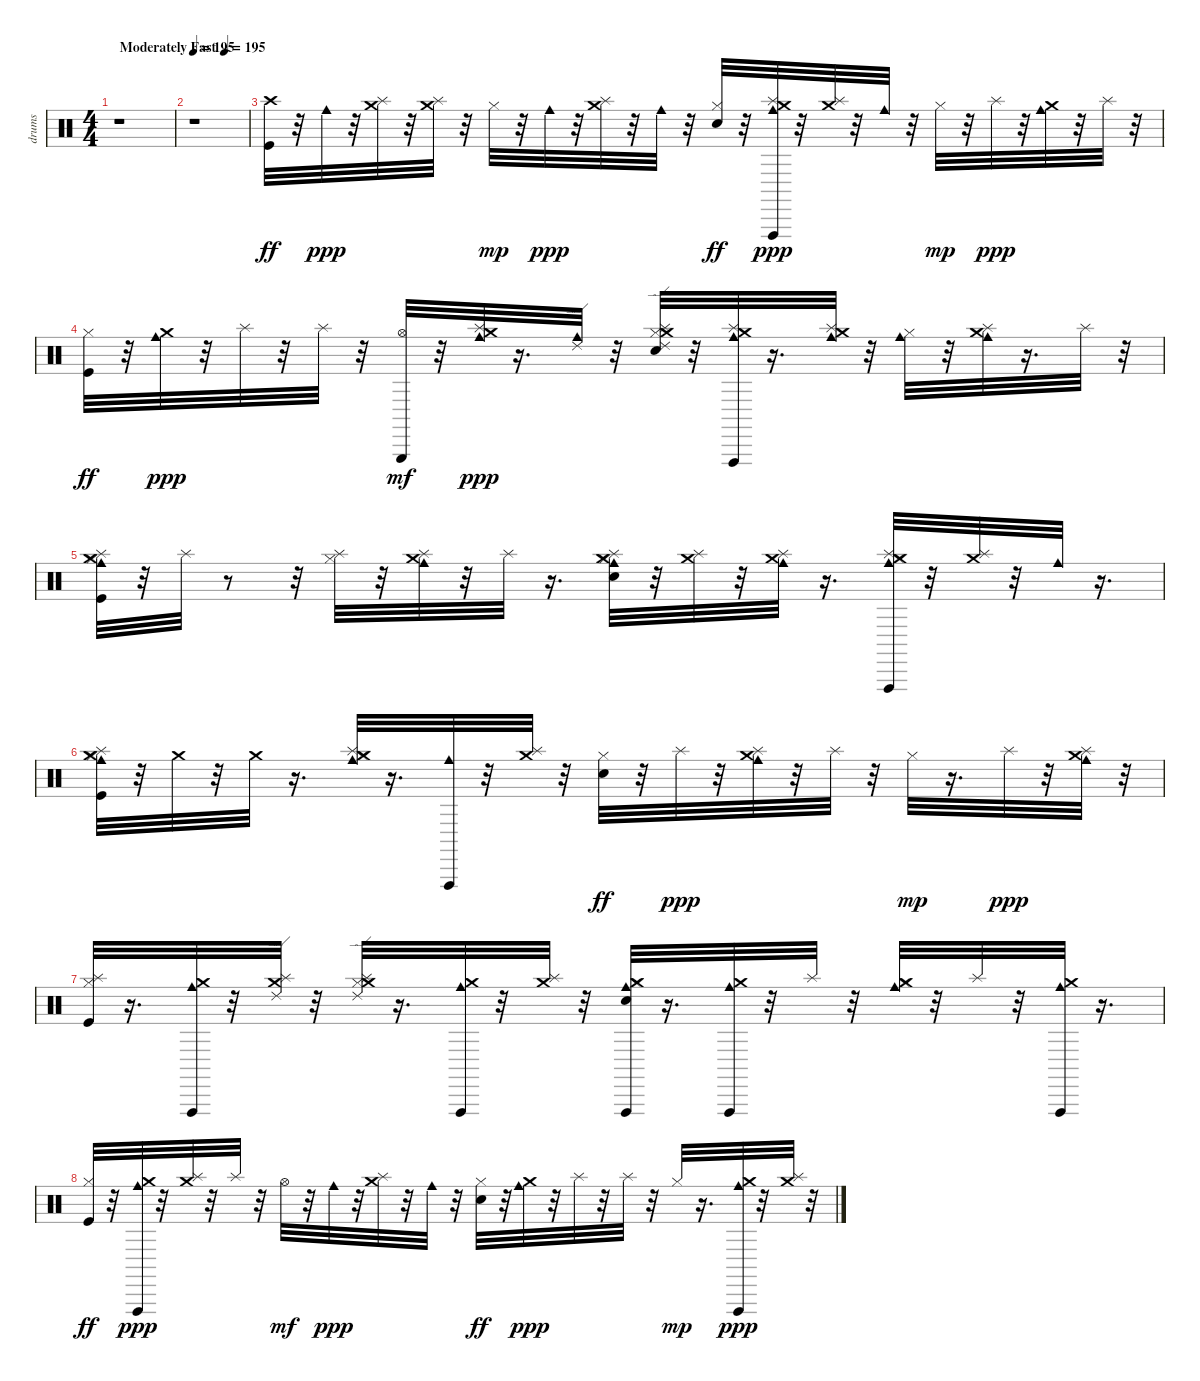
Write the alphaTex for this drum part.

\track ("drums" "drums") {instrument percussion}
\staff {score}
\articulation defaults
\ts (4 4)
\tempo (195 "Moderately Fast")
\clef neutral
\ks c
r.1{dy ff} |
\tempo 195
r.1 |
("Kick (hit)" "Crash high (hit)").32 r.32 "Cowbell medium (hit)".32{dy ppp} r.32 ("Splash (hit)" "Crash medium (hit)").32 r.32 ("Splash (hit)" "Crash medium (hit)").32 r.32 "Hi-Hat (closed)".32{dy mp} r.32 "Cowbell medium (hit)".32{dy ppp} r.32 ("Crash medium (hit)" "Splash (hit)").32 r.32 "Cowbell medium (hit)".32 r.32 ("Snare (hit) 2" "Hi-Hat (closed)").32{dy ff} r.32 ("Splash (hit)" "Crash medium (hit)" "Cowbell medium (hit)" "Vibraslap (hit)").32{dy ppp} r.32 ("Splash (hit)" "Crash medium (hit)").32 r.32 "Cowbell medium (hit)".32 r.32 "Hi-Hat (closed)".32{dy mp} r.32 "Splash (hit)".32{dy ppp} r.32 ("Cowbell medium (hit)" "Crash medium (hit)").32 r.32 "Splash (hit)".32 r.32 |
("Kick (hit)" "Hi-Hat (closed)").32{dy ff} r.32 ("Cowbell medium (hit)" "Crash medium (hit)").32{dy ppp} r.32 "Splash (hit)".32 r.32 "Splash (hit)".32 r.32 ("Hi-Hat (open)" "Triangle (hit)").32{dy mf} r.32 ("Cowbell medium (hit)" "Splash (hit)" "Crash medium (hit)").32{dy ppp} r.16{d} ("Cowbell medium (hit)" "Ride (edge) 2").32 r.32 ("Snare (hit) 2" "Hi-Hat (closed)" "Splash (hit)" "Crash medium (hit)" "Ride (edge) 2").32 r.32 ("Cowbell medium (hit)" "Vibraslap (hit)" "Crash medium (hit)" "Splash (hit)").32 r.16{d} ("Splash (hit)" "Cowbell medium (hit)" "Crash medium (hit)").32 r.32 ("Hi-Hat (closed)" "Cowbell medium (hit)").32 r.32 ("Cowbell medium (hit)" "Splash (hit)" "Crash medium (hit)").32 r.16{d} "Splash (hit)".32 r.32 |
("Hi-Hat (closed)" "Kick (hit)" "Splash (hit)" "Cowbell medium (hit)" "Crash medium (hit)").32 r.32 "Splash (hit)".32 r.8 r.32 ("Hi-Hat (closed)" "Splash (hit)").32 r.32 ("Splash (hit)" "Cowbell medium (hit)" "Crash medium (hit)").32 r.32 "Splash (hit)".32 r.16{d} ("Snare (hit) 2" "Hi-Hat (closed)" "Splash (hit)" "Cowbell medium (hit)" "Crash medium (hit)").32 r.32 ("Crash medium (hit)" "Splash (hit)").32 r.32 ("Crash medium (hit)" "Cowbell medium (hit)" "Splash (hit)").32 r.16{d} ("Hi-Hat (closed)" "Cowbell medium (hit)" "Crash medium (hit)" "Vibraslap (hit)" "Splash (hit)").32 r.32 ("Splash (hit)" "Crash medium (hit)").32 r.32 "Cowbell medium (hit)".32 r.16{d} |
("Hi-Hat (closed)" "Kick (hit)" "Splash (hit)" "Cowbell medium (hit)" "Crash medium (hit)").32 r.32 "Crash medium (hit)".32 r.32 "Crash medium (hit)".32 r.16{d} ("Hi-Hat (closed)" "Splash (hit)" "Cowbell medium (hit)" "Crash medium (hit)").32 r.16{d} ("Cowbell medium (hit)" "Vibraslap (hit)").32 r.32 ("Splash (hit)" "Crash medium (hit)").32 r.32 ("Hi-Hat (closed)" "Snare (hit) 2").32{dy ff} r.32 "Splash (hit)".32{dy ppp} r.32 ("Splash (hit)" "Cowbell medium (hit)" "Crash medium (hit)").32 r.32 "Splash (hit)".32 r.32 "Hi-Hat (closed)".32{dy mp} r.16{d} "Splash (hit)".32{dy ppp} r.32 ("Splash (hit)" "Cowbell medium (hit)" "Crash medium (hit)").32 r.32 |
("Kick (hit)" "Hi-Hat (closed)" "Splash (hit)").32 r.16{d} ("Cowbell medium (hit)" "Crash medium (hit)" "Vibraslap (hit)").32 r.32 ("Crash medium (hit)" "Splash (hit)" "Ride (edge) 2").32 r.32 ("Hi-Hat (closed)" "Crash medium (hit)" "Splash (hit)" "Ride (edge) 2").32 r.16{d} ("Crash medium (hit)" "Cowbell medium (hit)" "Vibraslap (hit)").32 r.32 ("Splash (hit)" "Crash medium (hit)").32 r.32 ("Snare (hit) 2" "Hi-Hat (closed)" "Cowbell medium (hit)" "Crash medium (hit)" "Vibraslap (hit)").32 r.16{d} ("Crash medium (hit)" "Cowbell medium (hit)" "Vibraslap (hit)").32 r.32 "Splash (hit)".32 r.32 ("Hi-Hat (closed)" "Cowbell medium (hit)" "Crash medium (hit)").32 r.32 "Splash (hit)".32 r.32 ("Cowbell medium (hit)" "Crash medium (hit)" "Vibraslap (hit)").32 r.16{d} |
("Kick (hit)" "Hi-Hat (closed)").32{dy ff} r.32 ("Crash medium (hit)" "Cowbell medium (hit)" "Vibraslap (hit)").32{dy ppp} r.32 ("Splash (hit)" "Crash medium (hit)").32 r.32 "Splash (hit)".32 r.32 "Hi-Hat (open)".32{dy mf} r.32 "Cowbell medium (hit)".32{dy ppp} r.32 ("Splash (hit)" "Crash medium (hit)").32 r.32 "Cowbell medium (hit)".32 r.32 ("Snare (hit) 2" "Hi-Hat (closed)").32{dy ff} r.32 ("Crash medium (hit)" "Cowbell medium (hit)").32{dy ppp} r.32 "Splash (hit)".32 r.32 "Splash (hit)".32 r.32 "Hi-Hat (closed)".32{dy mp} r.16{d} ("Cowbell medium (hit)" "Crash medium (hit)" "Vibraslap (hit)").32{dy ppp} r.32 ("Splash (hit)" "Crash medium (hit)").32 r.32
